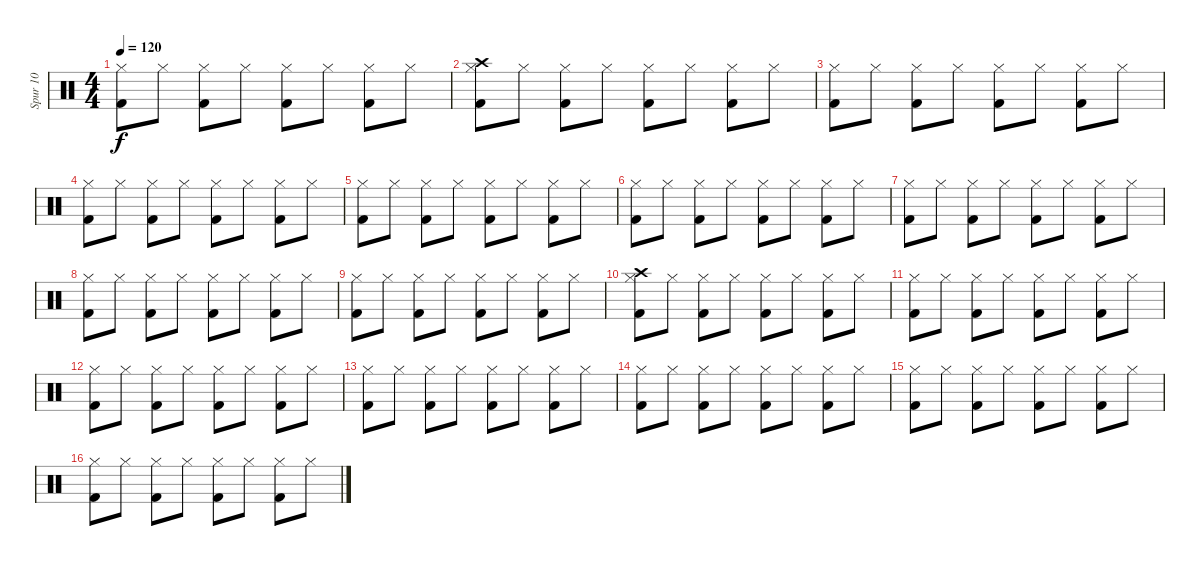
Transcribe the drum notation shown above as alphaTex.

\track ("Spur 10" "Spur 10") {instrument percussion}
\staff {score}
\articulation defaults
\ts (4 4)
\tempo 120
\clef neutral
\ks c
("Hi-Hat (closed)" "Kick (hit) 2").8{dy f} "Hi-Hat (closed)".8 ("Hi-Hat (closed)" "Kick (hit) 2").8 "Hi-Hat (closed)".8 ("Hi-Hat (closed)" "Kick (hit) 2").8 "Hi-Hat (closed)".8 ("Hi-Hat (closed)" "Kick (hit) 2").8 "Hi-Hat (closed)".8 |
("Kick (hit) 2" "Crash high (hit)" "Hi-Hat (closed)").8 "Hi-Hat (closed)".8 ("Kick (hit) 2" "Hi-Hat (closed)").8 "Hi-Hat (closed)".8 ("Kick (hit) 2" "Hi-Hat (closed)").8 "Hi-Hat (closed)".8 ("Kick (hit) 2" "Hi-Hat (closed)").8 "Hi-Hat (closed)".8 |
("Hi-Hat (closed)" "Kick (hit) 2").8 "Hi-Hat (closed)".8 ("Hi-Hat (closed)" "Kick (hit) 2").8 "Hi-Hat (closed)".8 ("Hi-Hat (closed)" "Kick (hit) 2").8 "Hi-Hat (closed)".8 ("Hi-Hat (closed)" "Kick (hit) 2").8 "Hi-Hat (closed)".8 |
("Hi-Hat (closed)" "Kick (hit) 2").8 "Hi-Hat (closed)".8 ("Hi-Hat (closed)" "Kick (hit) 2").8 "Hi-Hat (closed)".8 ("Hi-Hat (closed)" "Kick (hit) 2").8 "Hi-Hat (closed)".8 ("Hi-Hat (closed)" "Kick (hit) 2").8 "Hi-Hat (closed)".8 |
("Hi-Hat (closed)" "Kick (hit) 2").8 "Hi-Hat (closed)".8 ("Hi-Hat (closed)" "Kick (hit) 2").8 "Hi-Hat (closed)".8 ("Hi-Hat (closed)" "Kick (hit) 2").8 "Hi-Hat (closed)".8 ("Hi-Hat (closed)" "Kick (hit) 2").8 "Hi-Hat (closed)".8 |
("Hi-Hat (closed)" "Kick (hit) 2").8 "Hi-Hat (closed)".8 ("Hi-Hat (closed)" "Kick (hit) 2").8 "Hi-Hat (closed)".8 ("Hi-Hat (closed)" "Kick (hit) 2").8 "Hi-Hat (closed)".8 ("Hi-Hat (closed)" "Kick (hit) 2").8 "Hi-Hat (closed)".8 |
("Hi-Hat (closed)" "Kick (hit) 2").8 "Hi-Hat (closed)".8 ("Hi-Hat (closed)" "Kick (hit) 2").8 "Hi-Hat (closed)".8 ("Hi-Hat (closed)" "Kick (hit) 2").8 "Hi-Hat (closed)".8 ("Hi-Hat (closed)" "Kick (hit) 2").8 "Hi-Hat (closed)".8 |
("Hi-Hat (closed)" "Kick (hit) 2").8 "Hi-Hat (closed)".8 ("Hi-Hat (closed)" "Kick (hit) 2").8 "Hi-Hat (closed)".8 ("Hi-Hat (closed)" "Kick (hit) 2").8 "Hi-Hat (closed)".8 ("Hi-Hat (closed)" "Kick (hit) 2").8 "Hi-Hat (closed)".8 |
("Hi-Hat (closed)" "Kick (hit) 2").8 "Hi-Hat (closed)".8 ("Hi-Hat (closed)" "Kick (hit) 2").8 "Hi-Hat (closed)".8 ("Hi-Hat (closed)" "Kick (hit) 2").8 "Hi-Hat (closed)".8 ("Hi-Hat (closed)" "Kick (hit) 2").8 "Hi-Hat (closed)".8 |
("Crash high (hit)" "Kick (hit) 2" "Hi-Hat (closed)").8 "Hi-Hat (closed)".8 ("Kick (hit) 2" "Hi-Hat (closed)").8 "Hi-Hat (closed)".8 ("Kick (hit) 2" "Hi-Hat (closed)").8 "Hi-Hat (closed)".8 ("Kick (hit) 2" "Hi-Hat (closed)").8 "Hi-Hat (closed)".8 |
("Hi-Hat (closed)" "Kick (hit) 2").8 "Hi-Hat (closed)".8 ("Hi-Hat (closed)" "Kick (hit) 2").8 "Hi-Hat (closed)".8 ("Hi-Hat (closed)" "Kick (hit) 2").8 "Hi-Hat (closed)".8 ("Hi-Hat (closed)" "Kick (hit) 2").8 "Hi-Hat (closed)".8 |
("Hi-Hat (closed)" "Kick (hit) 2").8 "Hi-Hat (closed)".8 ("Hi-Hat (closed)" "Kick (hit) 2").8 "Hi-Hat (closed)".8 ("Hi-Hat (closed)" "Kick (hit) 2").8 "Hi-Hat (closed)".8 ("Hi-Hat (closed)" "Kick (hit) 2").8 "Hi-Hat (closed)".8 |
("Hi-Hat (closed)" "Kick (hit) 2").8 "Hi-Hat (closed)".8 ("Hi-Hat (closed)" "Kick (hit) 2").8 "Hi-Hat (closed)".8 ("Hi-Hat (closed)" "Kick (hit) 2").8 "Hi-Hat (closed)".8 ("Hi-Hat (closed)" "Kick (hit) 2").8 "Hi-Hat (closed)".8 |
("Hi-Hat (closed)" "Kick (hit) 2").8 "Hi-Hat (closed)".8 ("Hi-Hat (closed)" "Kick (hit) 2").8 "Hi-Hat (closed)".8 ("Hi-Hat (closed)" "Kick (hit) 2").8 "Hi-Hat (closed)".8 ("Hi-Hat (closed)" "Kick (hit) 2").8 "Hi-Hat (closed)".8 |
("Hi-Hat (closed)" "Kick (hit) 2").8 "Hi-Hat (closed)".8 ("Hi-Hat (closed)" "Kick (hit) 2").8 "Hi-Hat (closed)".8 ("Hi-Hat (closed)" "Kick (hit) 2").8 "Hi-Hat (closed)".8 ("Hi-Hat (closed)" "Kick (hit) 2").8 "Hi-Hat (closed)".8 |
("Hi-Hat (closed)" "Kick (hit) 2").8 "Hi-Hat (closed)".8 ("Hi-Hat (closed)" "Kick (hit) 2").8 "Hi-Hat (closed)".8 ("Hi-Hat (closed)" "Kick (hit) 2").8 "Hi-Hat (closed)".8 ("Hi-Hat (closed)" "Kick (hit) 2").8 "Hi-Hat (closed)".8
